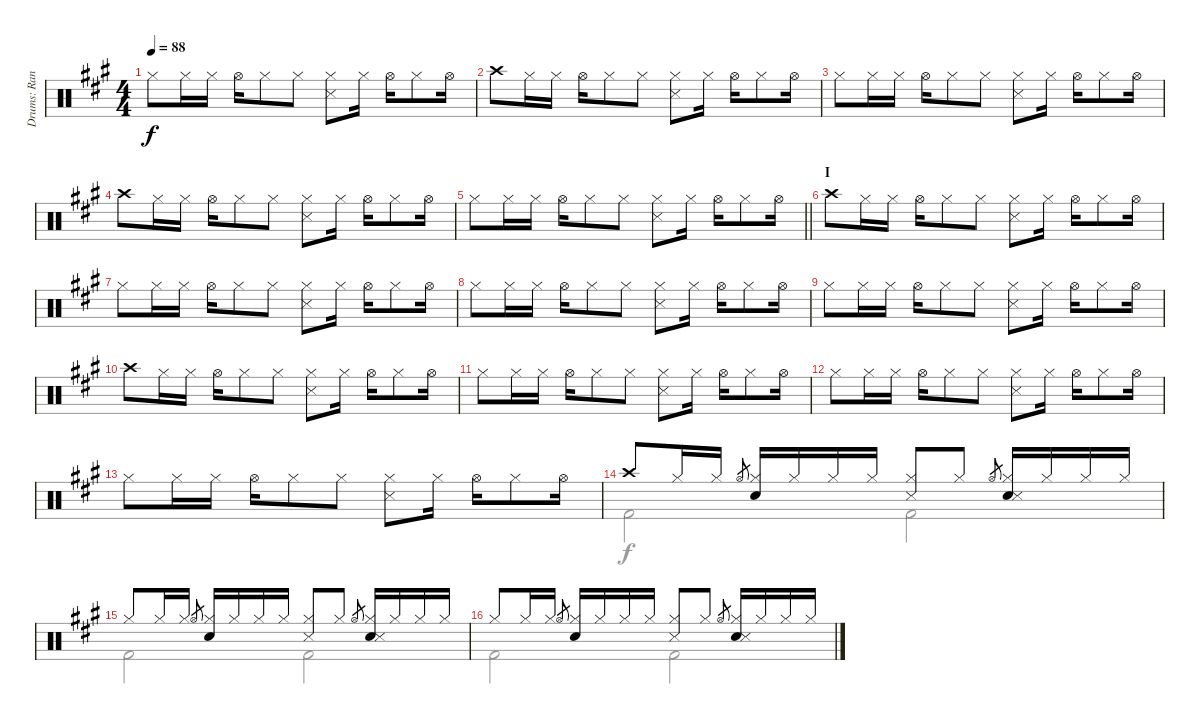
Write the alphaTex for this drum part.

\track ("Drums: Randy" "Drums: Ran") {instrument percussion}
\staff {score}
\articulation defaults
\voice
\ts (4 4)
\tempo 88
\clef neutral
\ks a "Hi-Hat (closed)".8{dy f} "Hi-Hat (closed)".16 "Hi-Hat (closed)".16 "Hi-Hat (open)".16 "Hi-Hat (closed)".8 "Hi-Hat (closed)".8
("Hi-Hat (closed)" "Snare (side stick) 3").8 "Hi-Hat (closed)".16 "Hi-Hat (open)".16 "Hi-Hat (closed)".8 "Hi-Hat (open)".16 |
"Crash high (hit)".8 "Hi-Hat (closed)".16 "Hi-Hat (closed)".16 "Hi-Hat (open)".16 "Hi-Hat (closed)".8 "Hi-Hat (closed)".8 ("Hi-Hat (closed)" "Snare (side stick) 3").8 "Hi-Hat (closed)".16 "Hi-Hat (open)".16 "Hi-Hat (closed)".8 "Hi-Hat (open)".16 |
"Hi-Hat (closed)".8 "Hi-Hat (closed)".16 "Hi-Hat (closed)".16 "Hi-Hat (open)".16 "Hi-Hat (closed)".8 "Hi-Hat (closed)".8 ("Hi-Hat (closed)" "Snare (side stick) 3").8 "Hi-Hat (closed)".16 "Hi-Hat (open)".16 "Hi-Hat (closed)".8 "Hi-Hat (open)".16 |
"Crash high (hit)".8 "Hi-Hat (closed)".16 "Hi-Hat (closed)".16 "Hi-Hat (open)".16 "Hi-Hat (closed)".8 "Hi-Hat (closed)".8 ("Hi-Hat (closed)" "Snare (side stick) 3").8 "Hi-Hat (closed)".16 "Hi-Hat (open)".16 "Hi-Hat (closed)".8 "Hi-Hat (open)".16 |
\barLineRight lightlight "Hi-Hat (closed)".8 "Hi-Hat (closed)".16 "Hi-Hat (closed)".16 "Hi-Hat (open)".16 "Hi-Hat (closed)".8 "Hi-Hat (closed)".8
("Hi-Hat (closed)" "Snare (side stick) 3").8 "Hi-Hat (closed)".16 "Hi-Hat (open)".16 "Hi-Hat (closed)".8 "Hi-Hat (open)".16 |
\section ("" "I")
"Crash high (hit)".8 "Hi-Hat (closed)".16 "Hi-Hat (closed)".16 "Hi-Hat (open)".16 "Hi-Hat (closed)".8 "Hi-Hat (closed)".8 ("Hi-Hat (closed)" "Snare (side stick) 3").8 "Hi-Hat (closed)".16 "Hi-Hat (open)".16 "Hi-Hat (closed)".8 "Hi-Hat (open)".16 |
"Hi-Hat (closed)".8 "Hi-Hat (closed)".16 "Hi-Hat (closed)".16 "Hi-Hat (open)".16 "Hi-Hat (closed)".8 "Hi-Hat (closed)".8 ("Hi-Hat (closed)" "Snare (side stick) 3").8 "Hi-Hat (closed)".16 "Hi-Hat (open)".16 "Hi-Hat (closed)".8 "Hi-Hat (open)".16 |
"Hi-Hat (closed)".8 "Hi-Hat (closed)".16 "Hi-Hat (closed)".16 "Hi-Hat (open)".16 "Hi-Hat (closed)".8 "Hi-Hat (closed)".8 ("Hi-Hat (closed)" "Snare (side stick) 3").8 "Hi-Hat (closed)".16 "Hi-Hat (open)".16 "Hi-Hat (closed)".8 "Hi-Hat (open)".16 |
"Hi-Hat (closed)".8 "Hi-Hat (closed)".16 "Hi-Hat (closed)".16 "Hi-Hat (open)".16 "Hi-Hat (closed)".8 "Hi-Hat (closed)".8 ("Hi-Hat (closed)" "Snare (side stick) 3").8 "Hi-Hat (closed)".16 "Hi-Hat (open)".16 "Hi-Hat (closed)".8 "Hi-Hat (open)".16 |
"Crash high (hit)".8 "Hi-Hat (closed)".16 "Hi-Hat (closed)".16 "Hi-Hat (open)".16 "Hi-Hat (closed)".8 "Hi-Hat (closed)".8 ("Hi-Hat (closed)" "Snare (side stick) 3").8 "Hi-Hat (closed)".16 "Hi-Hat (open)".16 "Hi-Hat (closed)".8 "Hi-Hat (open)".16 |
"Hi-Hat (closed)".8 "Hi-Hat (closed)".16 "Hi-Hat (closed)".16 "Hi-Hat (open)".16 "Hi-Hat (closed)".8 "Hi-Hat (closed)".8 ("Hi-Hat (closed)" "Snare (side stick) 3").8 "Hi-Hat (closed)".16 "Hi-Hat (open)".16 "Hi-Hat (closed)".8 "Hi-Hat (open)".16 |
"Hi-Hat (closed)".8 "Hi-Hat (closed)".16 "Hi-Hat (closed)".16 "Hi-Hat (open)".16 "Hi-Hat (closed)".8 "Hi-Hat (closed)".8 ("Hi-Hat (closed)" "Snare (side stick) 3").8 "Hi-Hat (closed)".16 "Hi-Hat (open)".16 "Hi-Hat (closed)".8 "Hi-Hat (open)".16 |
"Hi-Hat (closed)".8 "Hi-Hat (closed)".16 "Hi-Hat (closed)".16 "Hi-Hat (open)".16 "Hi-Hat (closed)".8 "Hi-Hat (closed)".8 ("Hi-Hat (closed)" "Snare (side stick) 3").8 "Hi-Hat (closed)".16 "Hi-Hat (open)".16 "Hi-Hat (closed)".8 "Hi-Hat (open)".16 |
"Crash high (hit)".8 "Hi-Hat (closed)".16 "Hi-Hat (closed)".16 "Hi-Hat (open)".8{gr} ("Hi-Hat (closed)" "Electric Snare (hit)").16 "Hi-Hat (closed)".16 "Hi-Hat (closed)".16 "Hi-Hat (closed)".16 ("Hi-Hat (closed)" "Snare (side stick) 3").8 "Hi-Hat (closed)".8 "Hi-Hat (open)".8{gr} ("Hi-Hat (closed)" "Electric Snare (hit)" "Snare (side stick) 3").16 "Hi-Hat (closed)".16 "Hi-Hat (closed)".16 "Hi-Hat (closed)".16 |
"Hi-Hat (closed)".8 "Hi-Hat (closed)".16 "Hi-Hat (closed)".16 "Hi-Hat (open)".8{gr} ("Hi-Hat (closed)" "Electric Snare (hit)").16 "Hi-Hat (closed)".16 "Hi-Hat (closed)".16 "Hi-Hat (closed)".16 ("Hi-Hat (closed)" "Snare (side stick) 3").8 "Hi-Hat (closed)".8 "Hi-Hat (open)".8{gr} ("Hi-Hat (closed)" "Electric Snare (hit)" "Snare (side stick) 3").16 "Hi-Hat (closed)".16 "Hi-Hat (closed)".16 "Hi-Hat (closed)".16 |
"Hi-Hat (closed)".8 "Hi-Hat (closed)".16 "Hi-Hat (closed)".16 "Hi-Hat (open)".8{gr} ("Hi-Hat (closed)" "Electric Snare (hit)").16 "Hi-Hat (closed)".16 "Hi-Hat (closed)".16 "Hi-Hat (closed)".16 ("Hi-Hat (closed)" "Snare (side stick) 3").8 "Hi-Hat (closed)".8 "Hi-Hat (open)".8{gr} ("Hi-Hat (closed)" "Electric Snare (hit)" "Snare (side stick) 3").16 "Hi-Hat (closed)".16 "Hi-Hat (closed)".16 "Hi-Hat (closed)".16
\voice
\clef neutral
\ottava regular
\simile none
\ks a
|
|
|
|
\barLineRight lightlight
|
|
|
|
|
|
|
|
|
"Kick (hit) 2".2 "Kick (hit) 2".2 |
"Kick (hit) 2".2 "Kick (hit) 2".2 |
"Kick (hit) 2".2 "Kick (hit) 2".2
